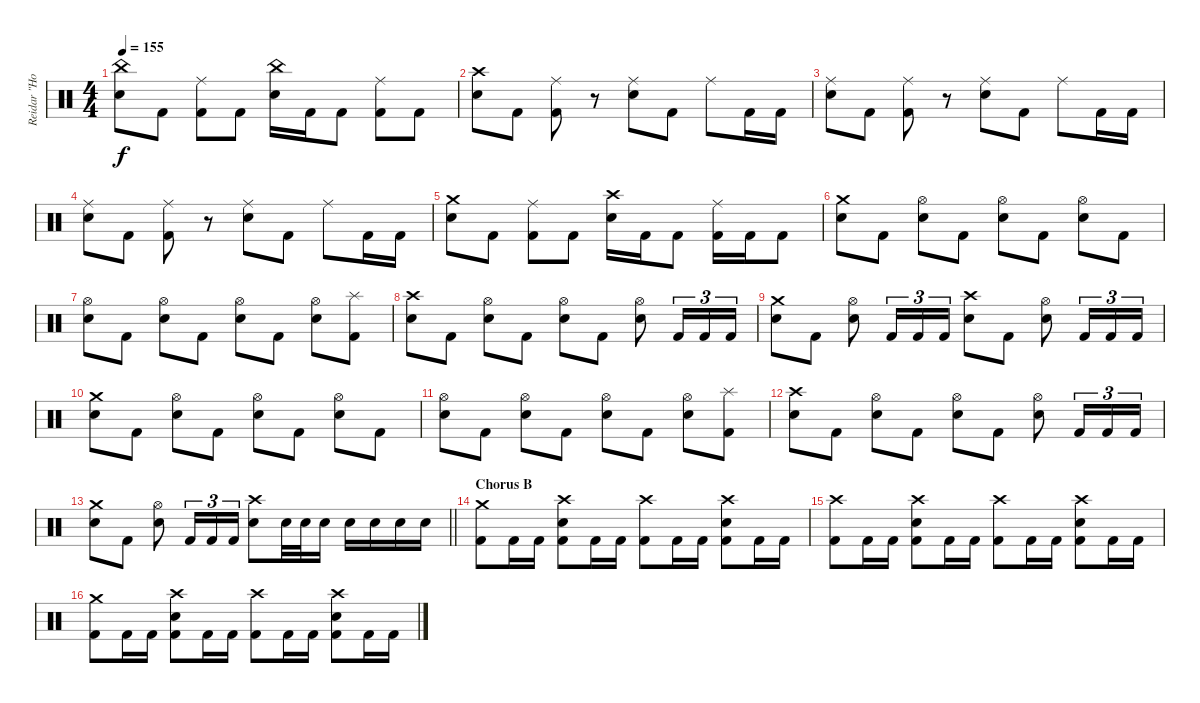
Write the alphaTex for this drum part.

\track ("Reidar \"Horgh\" Horghagen " "Reidar \"Ho") {instrument percussion}
\staff {score}
\articulation defaults
\ts (4 4)
\tempo 155
\clef neutral
\ks c
("China (hit)" "Snare (hit) 2").8{dy f} "Kick (hit) 2".8 ("Ride (middle)" "Kick (hit) 2").8 "Kick (hit) 2".8 ("China (hit)" "Snare (hit) 2").16 "Kick (hit) 2".16 "Kick (hit) 2".8 ("Ride (middle)" "Kick (hit) 2").8 "Kick (hit) 2".8 |
("Crash high (hit)" "Snare (hit) 2").8 "Kick (hit) 2".8 ("Ride (middle)" "Kick (hit) 2").8 r.8 ("Ride (middle)" "Snare (hit) 2").8 "Kick (hit) 2".8 "Ride (middle)".8 "Kick (hit) 2".16 "Kick (hit) 2".16 |
("Ride (middle)" "Snare (hit) 2").8 "Kick (hit) 2".8 ("Ride (middle)" "Kick (hit) 2").8 r.8 ("Ride (middle)" "Snare (hit) 2").8 "Kick (hit) 2".8 "Ride (middle)".8 "Kick (hit) 2".16 "Kick (hit) 2".16 |
("Ride (middle)" "Snare (hit) 2").8 "Kick (hit) 2".8 ("Ride (middle)" "Kick (hit) 2").8 r.8 ("Ride (middle)" "Snare (hit) 2").8 "Kick (hit) 2".8 "Ride (middle)".8 "Kick (hit) 2".16 "Kick (hit) 2".16 |
("Crash medium (hit)" "Snare (hit) 2").8 "Kick (hit) 2".8 ("Ride (middle)" "Kick (hit) 2").8 "Kick (hit) 2".8 ("Crash high (hit)" "Snare (hit) 2").16 "Kick (hit) 2".16 "Kick (hit) 2".8 ("Ride (middle)" "Kick (hit) 2").16 "Kick (hit) 2".16 "Kick (hit) 2".8 |
("Crash medium (hit)" "Snare (hit) 2").8 "Kick (hit) 2".8 ("Hi-Hat (open)" "Snare (hit) 2").8 "Kick (hit) 2".8 ("Hi-Hat (open)" "Snare (hit) 2").8 "Kick (hit) 2".8 ("Hi-Hat (open)" "Snare (hit) 2").8 "Kick (hit) 2".8 |
("Hi-Hat (open)" "Snare (hit) 2").8 "Kick (hit) 2".8 ("Hi-Hat (open)" "Snare (hit) 2").8 "Kick (hit) 2".8 ("Hi-Hat (open)" "Snare (hit) 2").8 "Kick (hit) 2".8 ("Hi-Hat (open)" "Snare (hit) 2").8 ("Splash (hit)" "Kick (hit) 2").8 |
("Crash high (hit)" "Snare (hit) 2").8 "Kick (hit) 2".8 ("Hi-Hat (open)" "Snare (hit) 2").8 "Kick (hit) 2".8 ("Hi-Hat (open)" "Snare (hit) 2").8 "Kick (hit) 2".8 ("Hi-Hat (open)" "Snare (hit) 2").8 "Kick (hit) 2".16{tu (3 2)} "Kick (hit) 2".16{tu (3 2)} "Kick (hit) 2".16{tu (3 2)} |
("Crash medium (hit)" "Snare (hit) 2").8 "Kick (hit) 2".8 ("Hi-Hat (open)" "Snare (hit) 2").8 "Kick (hit) 2".16{tu (3 2)} "Kick (hit) 2".16{tu (3 2)} "Kick (hit) 2".16{tu (3 2)} ("Crash high (hit)" "Snare (hit) 2").8 "Kick (hit) 2".8 ("Hi-Hat (open)" "Snare (hit) 2").8 "Kick (hit) 2".16{tu (3 2)} "Kick (hit) 2".16{tu (3 2)} "Kick (hit) 2".16{tu (3 2)} |
("Crash medium (hit)" "Snare (hit) 2").8 "Kick (hit) 2".8 ("Hi-Hat (open)" "Snare (hit) 2").8 "Kick (hit) 2".8 ("Hi-Hat (open)" "Snare (hit) 2").8 "Kick (hit) 2".8 ("Hi-Hat (open)" "Snare (hit) 2").8 "Kick (hit) 2".8 |
("Hi-Hat (open)" "Snare (hit) 2").8 "Kick (hit) 2".8 ("Hi-Hat (open)" "Snare (hit) 2").8 "Kick (hit) 2".8 ("Hi-Hat (open)" "Snare (hit) 2").8 "Kick (hit) 2".8 ("Hi-Hat (open)" "Snare (hit) 2").8 ("Splash (hit)" "Kick (hit) 2").8 |
("Crash high (hit)" "Snare (hit) 2").8 "Kick (hit) 2".8 ("Hi-Hat (open)" "Snare (hit) 2").8 "Kick (hit) 2".8 ("Hi-Hat (open)" "Snare (hit) 2").8 "Kick (hit) 2".8 ("Hi-Hat (open)" "Snare (hit) 2").8 "Kick (hit) 2".16{tu (3 2)} "Kick (hit) 2".16{tu (3 2)} "Kick (hit) 2".16{tu (3 2)} |
\barLineRight lightlight
("Crash medium (hit)" "Snare (hit) 2").8 "Kick (hit) 2".8 ("Hi-Hat (open)" "Snare (hit) 2").8 "Kick (hit) 2".16{tu (3 2)} "Kick (hit) 2".16{tu (3 2)} "Kick (hit) 2".16{tu (3 2)} ("Crash high (hit)" "Snare (hit) 2").8 "Snare (hit) 2".32 "Snare (hit) 2".32 "Snare (hit) 2".16 "Snare (hit) 2".16 "Snare (hit) 2".16 "Snare (hit) 2".16 "Snare (hit) 2".16 |
\section ("" "Chorus B")
("Crash medium (hit)" "Kick (hit) 2").8 "Kick (hit) 2".16 "Kick (hit) 2".16 ("Crash high (hit)" "Snare (hit) 2" "Kick (hit) 2").8 "Kick (hit) 2".16 "Kick (hit) 2".16 ("Crash high (hit)" "Kick (hit) 2").8 "Kick (hit) 2".16 "Kick (hit) 2".16 ("Crash high (hit)" "Snare (hit) 2" "Kick (hit) 2").8 "Kick (hit) 2".16 "Kick (hit) 2".16 |
("Crash high (hit)" "Kick (hit) 2").8 "Kick (hit) 2".16 "Kick (hit) 2".16 ("Crash high (hit)" "Snare (hit) 2" "Kick (hit) 2").8 "Kick (hit) 2".16 "Kick (hit) 2".16 ("Crash high (hit)" "Kick (hit) 2").8 "Kick (hit) 2".16 "Kick (hit) 2".16 ("Crash high (hit)" "Snare (hit) 2" "Kick (hit) 2").8 "Kick (hit) 2".16 "Kick (hit) 2".16 |
("Crash medium (hit)" "Kick (hit) 2").8 "Kick (hit) 2".16 "Kick (hit) 2".16 ("Crash high (hit)" "Snare (hit) 2" "Kick (hit) 2").8 "Kick (hit) 2".16 "Kick (hit) 2".16 ("Crash high (hit)" "Kick (hit) 2").8 "Kick (hit) 2".16 "Kick (hit) 2".16 ("Crash high (hit)" "Snare (hit) 2" "Kick (hit) 2").8 "Kick (hit) 2".16 "Kick (hit) 2".16
